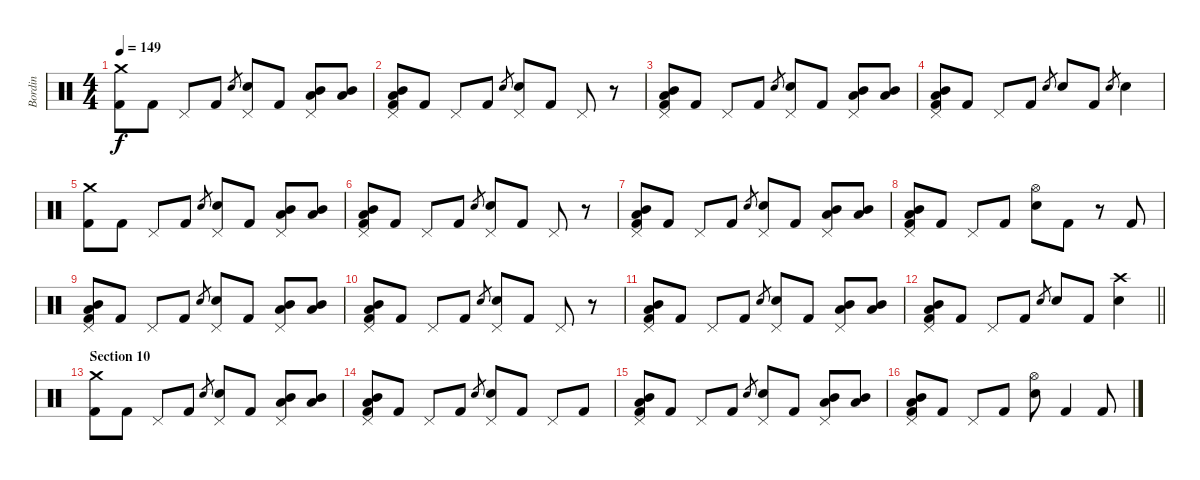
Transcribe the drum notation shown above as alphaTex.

\track ("Bordin" "Bordin") {instrument percussion}
\staff {score}
\articulation defaults
\ts (4 4)
\tempo 149
\clef neutral
\ks c
("Crash medium (hit)" "Kick (hit) 2").8{dy f} "Kick (hit) 2".8 "Pedal Hi-Hat (hit)".8 "Kick (hit) 2".8 "Electric Snare (hit)".8{gr} ("Pedal Hi-Hat (hit)" "Electric Snare (hit)").8 "Kick (hit) 2".8 ("Low Tom (hit)" "Mid Tom (hit)" "Pedal Hi-Hat (hit)").8 ("Low Tom (hit)" "Mid Tom (hit)").8 |
("Mid Tom (hit)" "Low Tom (hit)" "Pedal Hi-Hat (hit)" "Kick (hit) 2").8 "Kick (hit) 2".8 "Pedal Hi-Hat (hit)".8 "Kick (hit) 2".8 "Electric Snare (hit)".8{gr} ("Pedal Hi-Hat (hit)" "Electric Snare (hit)").8 "Kick (hit) 2".8 "Pedal Hi-Hat (hit)".8 r.8 |
("Mid Tom (hit)" "Low Tom (hit)" "Pedal Hi-Hat (hit)" "Kick (hit) 2").8 "Kick (hit) 2".8 "Pedal Hi-Hat (hit)".8 "Kick (hit) 2".8 "Electric Snare (hit)".8{gr} ("Pedal Hi-Hat (hit)" "Electric Snare (hit)").8 "Kick (hit) 2".8 ("Low Tom (hit)" "Mid Tom (hit)" "Pedal Hi-Hat (hit)").8 ("Low Tom (hit)" "Mid Tom (hit)").8 |
("Mid Tom (hit)" "Low Tom (hit)" "Pedal Hi-Hat (hit)" "Kick (hit) 2").8 "Kick (hit) 2".8 "Pedal Hi-Hat (hit)".8 "Kick (hit) 2".8 "Electric Snare (hit)".8{gr} "Electric Snare (hit)".8 "Kick (hit) 2".8 "Electric Snare (hit)".8{gr} "Electric Snare (hit)".4 |
("Crash medium (hit)" "Kick (hit) 2").8 "Kick (hit) 2".8 "Pedal Hi-Hat (hit)".8 "Kick (hit) 2".8 "Electric Snare (hit)".8{gr} ("Pedal Hi-Hat (hit)" "Electric Snare (hit)").8 "Kick (hit) 2".8 ("Low Tom (hit)" "Mid Tom (hit)" "Pedal Hi-Hat (hit)").8 ("Low Tom (hit)" "Mid Tom (hit)").8 |
("Mid Tom (hit)" "Low Tom (hit)" "Pedal Hi-Hat (hit)" "Kick (hit) 2").8 "Kick (hit) 2".8 "Pedal Hi-Hat (hit)".8 "Kick (hit) 2".8 "Electric Snare (hit)".8{gr} ("Pedal Hi-Hat (hit)" "Electric Snare (hit)").8 "Kick (hit) 2".8 "Pedal Hi-Hat (hit)".8 r.8 |
("Mid Tom (hit)" "Low Tom (hit)" "Pedal Hi-Hat (hit)" "Kick (hit) 2").8 "Kick (hit) 2".8 "Pedal Hi-Hat (hit)".8 "Kick (hit) 2".8 "Electric Snare (hit)".8{gr} ("Pedal Hi-Hat (hit)" "Electric Snare (hit)").8 "Kick (hit) 2".8 ("Low Tom (hit)" "Mid Tom (hit)" "Pedal Hi-Hat (hit)").8 ("Low Tom (hit)" "Mid Tom (hit)").8 |
("Mid Tom (hit)" "Low Tom (hit)" "Pedal Hi-Hat (hit)" "Kick (hit) 2").8 "Kick (hit) 2".8 "Pedal Hi-Hat (hit)".8 "Kick (hit) 2".8 ("Hi-Hat (open)" "Electric Snare (hit)").8 "Kick (hit) 2".8 r.8 "Kick (hit) 2".8 |
("Mid Tom (hit)" "Low Tom (hit)" "Pedal Hi-Hat (hit)" "Kick (hit) 2").8 "Kick (hit) 2".8 "Pedal Hi-Hat (hit)".8 "Kick (hit) 2".8 "Electric Snare (hit)".8{gr} ("Pedal Hi-Hat (hit)" "Electric Snare (hit)").8 "Kick (hit) 2".8 ("Low Tom (hit)" "Mid Tom (hit)" "Pedal Hi-Hat (hit)").8 ("Low Tom (hit)" "Mid Tom (hit)").8 |
("Mid Tom (hit)" "Low Tom (hit)" "Pedal Hi-Hat (hit)" "Kick (hit) 2").8 "Kick (hit) 2".8 "Pedal Hi-Hat (hit)".8 "Kick (hit) 2".8 "Electric Snare (hit)".8{gr} ("Pedal Hi-Hat (hit)" "Electric Snare (hit)").8 "Kick (hit) 2".8 "Pedal Hi-Hat (hit)".8 r.8 |
("Mid Tom (hit)" "Low Tom (hit)" "Pedal Hi-Hat (hit)" "Kick (hit) 2").8 "Kick (hit) 2".8 "Pedal Hi-Hat (hit)".8 "Kick (hit) 2".8 "Electric Snare (hit)".8{gr} ("Pedal Hi-Hat (hit)" "Electric Snare (hit)").8 "Kick (hit) 2".8 ("Low Tom (hit)" "Mid Tom (hit)" "Pedal Hi-Hat (hit)").8 ("Low Tom (hit)" "Mid Tom (hit)").8 |
\barLineRight lightlight
("Mid Tom (hit)" "Low Tom (hit)" "Pedal Hi-Hat (hit)" "Kick (hit) 2").8 "Kick (hit) 2".8 "Pedal Hi-Hat (hit)".8 "Kick (hit) 2".8 "Electric Snare (hit)".8{gr} "Electric Snare (hit)".8 "Kick (hit) 2".8 ("Crash high (hit)" "Electric Snare (hit)").4 |
\section ("" "Section 10")
("Crash medium (hit)" "Kick (hit) 2").8 "Kick (hit) 2".8 "Pedal Hi-Hat (hit)".8 "Kick (hit) 2".8 "Electric Snare (hit)".8{gr} ("Pedal Hi-Hat (hit)" "Electric Snare (hit)").8 "Kick (hit) 2".8 ("Low Tom (hit)" "Mid Tom (hit)" "Pedal Hi-Hat (hit)").8 ("Low Tom (hit)" "Mid Tom (hit)").8 |
("Mid Tom (hit)" "Low Tom (hit)" "Pedal Hi-Hat (hit)" "Kick (hit) 2").8 "Kick (hit) 2".8 "Pedal Hi-Hat (hit)".8 "Kick (hit) 2".8 "Electric Snare (hit)".8{gr} ("Pedal Hi-Hat (hit)" "Electric Snare (hit)").8 "Kick (hit) 2".8 "Pedal Hi-Hat (hit)".8 "Kick (hit) 2".8 |
("Mid Tom (hit)" "Low Tom (hit)" "Pedal Hi-Hat (hit)" "Kick (hit) 2").8 "Kick (hit) 2".8 "Pedal Hi-Hat (hit)".8 "Kick (hit) 2".8 "Electric Snare (hit)".8{gr} ("Pedal Hi-Hat (hit)" "Electric Snare (hit)").8 "Kick (hit) 2".8 ("Low Tom (hit)" "Mid Tom (hit)" "Pedal Hi-Hat (hit)").8 ("Low Tom (hit)" "Mid Tom (hit)").8 |
("Mid Tom (hit)" "Low Tom (hit)" "Pedal Hi-Hat (hit)" "Kick (hit) 2").8 "Kick (hit) 2".8 "Pedal Hi-Hat (hit)".8 "Kick (hit) 2".8 ("Hi-Hat (open)" "Electric Snare (hit)").8 "Kick (hit) 2".4 "Kick (hit) 2".8
